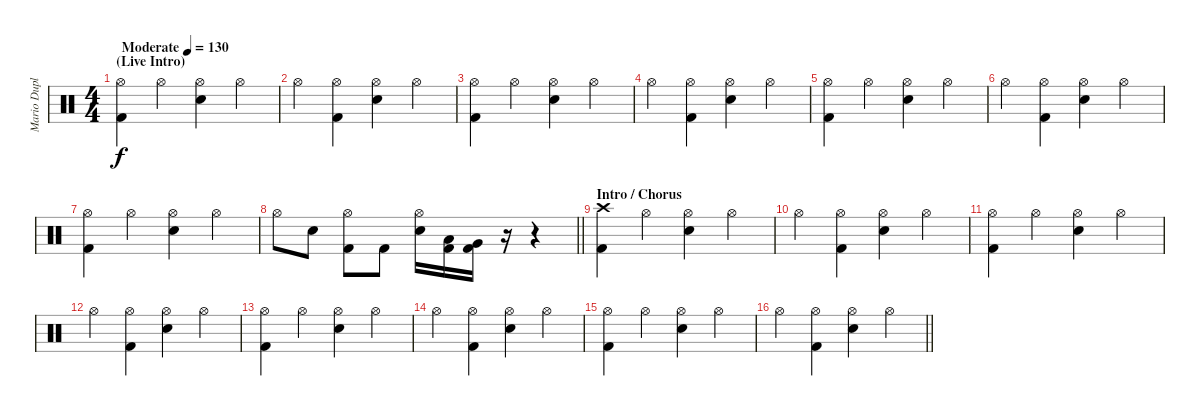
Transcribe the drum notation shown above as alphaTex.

\track ("Mario Duplantier" "Mario Dupl") {instrument percussion}
\staff {score}
\articulation defaults
\ts (4 4)
\section ("" "(Live Intro)")
\tempo (130 "Moderate")
\clef neutral
\ks c
("Hi-Hat (open)" "Kick (hit) 2").4{dy f} "Hi-Hat (open)".4 ("Hi-Hat (open)" "Electric Snare (hit)").4 "Hi-Hat (open)".4 |
"Hi-Hat (open)".4 ("Hi-Hat (open)" "Kick (hit) 2").4 ("Hi-Hat (open)" "Electric Snare (hit)").4 "Hi-Hat (open)".4 |
("Hi-Hat (open)" "Kick (hit) 2").4 "Hi-Hat (open)".4 ("Hi-Hat (open)" "Electric Snare (hit)").4 "Hi-Hat (open)".4 |
"Hi-Hat (open)".4 ("Hi-Hat (open)" "Kick (hit) 2").4 ("Hi-Hat (open)" "Electric Snare (hit)").4 "Hi-Hat (open)".4 |
("Hi-Hat (open)" "Kick (hit) 2").4 "Hi-Hat (open)".4 ("Hi-Hat (open)" "Electric Snare (hit)").4 "Hi-Hat (open)".4 |
"Hi-Hat (open)".4 ("Hi-Hat (open)" "Kick (hit) 2").4 ("Hi-Hat (open)" "Electric Snare (hit)").4 "Hi-Hat (open)".4 |
("Hi-Hat (open)" "Kick (hit) 2").4 "Hi-Hat (open)".4 ("Hi-Hat (open)" "Electric Snare (hit)").4 "Hi-Hat (open)".4 |
\barLineRight lightlight "Hi-Hat (open)".8 "Electric Snare (hit)".8
("Hi-Hat (open)" "Kick (hit) 2").8 "Kick (hit) 2".8 ("Hi-Hat (open)" "Electric Snare (hit)").16 ("Low Tom (hit)" "Kick (hit) 2").16 ("Very Low Tom (hit)" "Kick (hit) 2").16 r.16 r.4 |
\section ("" "Intro / Chorus")
("Crash high (hit)" "Kick (hit) 2").4 "Hi-Hat (open)".4 ("Hi-Hat (open)" "Electric Snare (hit)").4 "Hi-Hat (open)".4 |
"Hi-Hat (open)".4 ("Hi-Hat (open)" "Kick (hit) 2").4 ("Hi-Hat (open)" "Electric Snare (hit)").4 "Hi-Hat (open)".4 |
("Hi-Hat (open)" "Kick (hit) 2").4 "Hi-Hat (open)".4 ("Hi-Hat (open)" "Electric Snare (hit)").4 "Hi-Hat (open)".4 |
"Hi-Hat (open)".4 ("Hi-Hat (open)" "Kick (hit) 2").4 ("Hi-Hat (open)" "Electric Snare (hit)").4 "Hi-Hat (open)".4 |
("Hi-Hat (open)" "Kick (hit) 2").4 "Hi-Hat (open)".4 ("Hi-Hat (open)" "Electric Snare (hit)").4 "Hi-Hat (open)".4 |
"Hi-Hat (open)".4 ("Hi-Hat (open)" "Kick (hit) 2").4 ("Hi-Hat (open)" "Electric Snare (hit)").4 "Hi-Hat (open)".4 |
("Hi-Hat (open)" "Kick (hit) 2").4 "Hi-Hat (open)".4 ("Hi-Hat (open)" "Electric Snare (hit)").4 "Hi-Hat (open)".4 |
\barLineRight lightlight "Hi-Hat (open)".4
("Hi-Hat (open)" "Kick (hit) 2").4 ("Hi-Hat (open)" "Electric Snare (hit)").4 "Hi-Hat (open)".4
